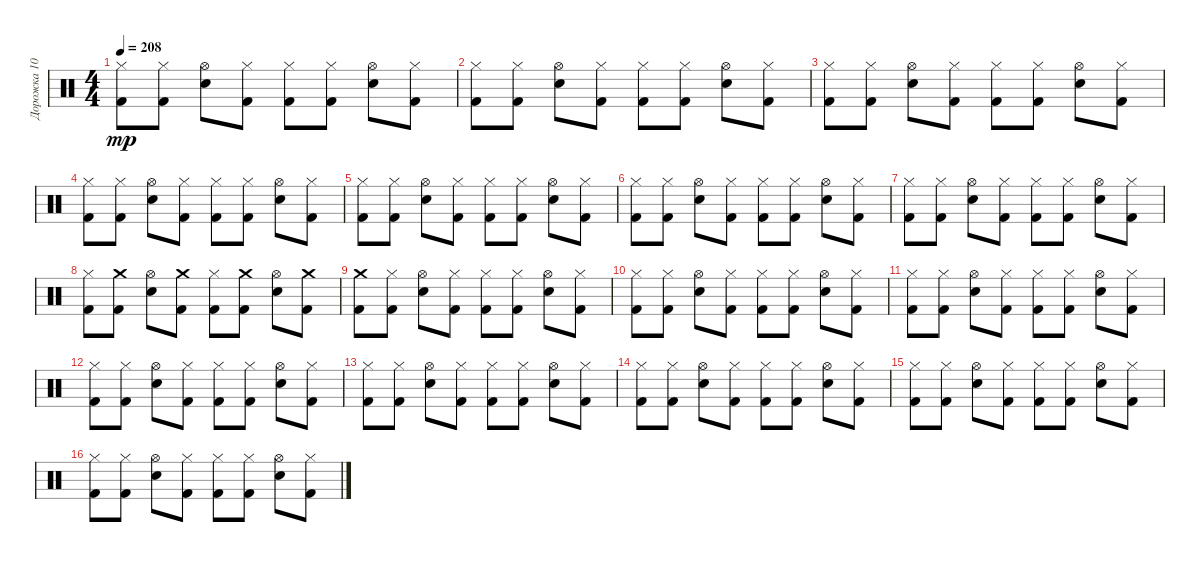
\track ("Дорожка 10" "Дорожка 10") {instrument percussion}
\staff {score}
\articulation defaults
\ts (4 4)
\tempo 208
\clef neutral
\ks c
("Kick (hit) 2" "Hi-Hat (closed)").8{dy mp} ("Kick (hit) 2" "Hi-Hat (closed)").8 ("Snare (hit) 2" "Hi-Hat (open)").8 ("Kick (hit) 2" "Hi-Hat (closed)").8 ("Kick (hit) 2" "Hi-Hat (closed)").8 ("Kick (hit) 2" "Hi-Hat (closed)").8 ("Snare (hit) 2" "Hi-Hat (open)").8 ("Kick (hit) 2" "Hi-Hat (closed)").8 |
("Kick (hit) 2" "Hi-Hat (closed)").8 ("Kick (hit) 2" "Hi-Hat (closed)").8 ("Snare (hit) 2" "Hi-Hat (open)").8 ("Kick (hit) 2" "Hi-Hat (closed)").8 ("Kick (hit) 2" "Hi-Hat (closed)").8 ("Kick (hit) 2" "Hi-Hat (closed)").8 ("Snare (hit) 2" "Hi-Hat (open)").8 ("Kick (hit) 2" "Hi-Hat (closed)").8 |
("Kick (hit) 2" "Hi-Hat (closed)").8 ("Kick (hit) 2" "Hi-Hat (closed)").8 ("Snare (hit) 2" "Hi-Hat (open)").8 ("Kick (hit) 2" "Hi-Hat (closed)").8 ("Kick (hit) 2" "Hi-Hat (closed)").8 ("Kick (hit) 2" "Hi-Hat (closed)").8 ("Snare (hit) 2" "Hi-Hat (open)").8 ("Kick (hit) 2" "Hi-Hat (closed)").8 |
("Kick (hit) 2" "Hi-Hat (closed)").8 ("Kick (hit) 2" "Hi-Hat (closed)").8 ("Snare (hit) 2" "Hi-Hat (open)").8 ("Kick (hit) 2" "Hi-Hat (closed)").8 ("Kick (hit) 2" "Hi-Hat (closed)").8 ("Kick (hit) 2" "Hi-Hat (closed)").8 ("Snare (hit) 2" "Hi-Hat (open)").8 ("Kick (hit) 2" "Hi-Hat (closed)").8 |
("Kick (hit) 2" "Hi-Hat (closed)").8 ("Kick (hit) 2" "Hi-Hat (closed)").8 ("Snare (hit) 2" "Hi-Hat (open)").8 ("Kick (hit) 2" "Hi-Hat (closed)").8 ("Kick (hit) 2" "Hi-Hat (closed)").8 ("Kick (hit) 2" "Hi-Hat (closed)").8 ("Snare (hit) 2" "Hi-Hat (open)").8 ("Kick (hit) 2" "Hi-Hat (closed)").8 |
("Kick (hit) 2" "Hi-Hat (closed)").8 ("Kick (hit) 2" "Hi-Hat (closed)").8 ("Snare (hit) 2" "Hi-Hat (open)").8 ("Kick (hit) 2" "Hi-Hat (closed)").8 ("Kick (hit) 2" "Hi-Hat (closed)").8 ("Kick (hit) 2" "Hi-Hat (closed)").8 ("Snare (hit) 2" "Hi-Hat (open)").8 ("Kick (hit) 2" "Hi-Hat (closed)").8 |
("Kick (hit) 2" "Hi-Hat (closed)").8 ("Kick (hit) 2" "Hi-Hat (closed)").8 ("Snare (hit) 2" "Hi-Hat (open)").8 ("Kick (hit) 2" "Hi-Hat (closed)").8 ("Kick (hit) 2" "Hi-Hat (closed)").8 ("Kick (hit) 2" "Hi-Hat (closed)").8 ("Snare (hit) 2" "Hi-Hat (open)").8 ("Kick (hit) 2" "Hi-Hat (closed)").8 |
("Kick (hit) 2" "Hi-Hat (closed)").8 ("Kick (hit) 2" "Crash medium (hit)").8 ("Snare (hit) 2" "Hi-Hat (open)").8 ("Kick (hit) 2" "Crash medium (hit)").8 ("Kick (hit) 2" "Hi-Hat (closed)").8 ("Kick (hit) 2" "Crash medium (hit)").8 ("Snare (hit) 2" "Hi-Hat (open)").8 ("Kick (hit) 2" "Crash medium (hit)").8 |
("Kick (hit) 2" "Crash medium (hit)").8 ("Kick (hit) 2" "Hi-Hat (closed)").8 ("Snare (hit) 2" "Hi-Hat (open)").8 ("Kick (hit) 2" "Hi-Hat (closed)").8 ("Kick (hit) 2" "Hi-Hat (closed)").8 ("Kick (hit) 2" "Hi-Hat (closed)").8 ("Snare (hit) 2" "Hi-Hat (open)").8 ("Kick (hit) 2" "Hi-Hat (closed)").8 |
("Kick (hit) 2" "Hi-Hat (closed)").8 ("Kick (hit) 2" "Hi-Hat (closed)").8 ("Snare (hit) 2" "Hi-Hat (open)").8 ("Kick (hit) 2" "Hi-Hat (closed)").8 ("Kick (hit) 2" "Hi-Hat (closed)").8 ("Kick (hit) 2" "Hi-Hat (closed)").8 ("Snare (hit) 2" "Hi-Hat (open)").8 ("Kick (hit) 2" "Hi-Hat (closed)").8 |
("Kick (hit) 2" "Hi-Hat (closed)").8 ("Kick (hit) 2" "Hi-Hat (closed)").8 ("Snare (hit) 2" "Hi-Hat (open)").8 ("Kick (hit) 2" "Hi-Hat (closed)").8 ("Kick (hit) 2" "Hi-Hat (closed)").8 ("Kick (hit) 2" "Hi-Hat (closed)").8 ("Snare (hit) 2" "Hi-Hat (open)").8 ("Kick (hit) 2" "Hi-Hat (closed)").8 |
("Kick (hit) 2" "Hi-Hat (closed)").8 ("Kick (hit) 2" "Hi-Hat (closed)").8 ("Snare (hit) 2" "Hi-Hat (open)").8 ("Kick (hit) 2" "Hi-Hat (closed)").8 ("Kick (hit) 2" "Hi-Hat (closed)").8 ("Kick (hit) 2" "Hi-Hat (closed)").8 ("Snare (hit) 2" "Hi-Hat (open)").8 ("Kick (hit) 2" "Hi-Hat (closed)").8 |
("Kick (hit) 2" "Hi-Hat (closed)").8 ("Kick (hit) 2" "Hi-Hat (closed)").8 ("Snare (hit) 2" "Hi-Hat (open)").8 ("Kick (hit) 2" "Hi-Hat (closed)").8 ("Kick (hit) 2" "Hi-Hat (closed)").8 ("Kick (hit) 2" "Hi-Hat (closed)").8 ("Snare (hit) 2" "Hi-Hat (open)").8 ("Kick (hit) 2" "Hi-Hat (closed)").8 |
("Kick (hit) 2" "Hi-Hat (closed)").8 ("Kick (hit) 2" "Hi-Hat (closed)").8 ("Snare (hit) 2" "Hi-Hat (open)").8 ("Kick (hit) 2" "Hi-Hat (closed)").8 ("Kick (hit) 2" "Hi-Hat (closed)").8 ("Kick (hit) 2" "Hi-Hat (closed)").8 ("Snare (hit) 2" "Hi-Hat (open)").8 ("Kick (hit) 2" "Hi-Hat (closed)").8 |
("Kick (hit) 2" "Hi-Hat (closed)").8 ("Kick (hit) 2" "Hi-Hat (closed)").8 ("Snare (hit) 2" "Hi-Hat (open)").8 ("Kick (hit) 2" "Hi-Hat (closed)").8 ("Kick (hit) 2" "Hi-Hat (closed)").8 ("Kick (hit) 2" "Hi-Hat (closed)").8 ("Snare (hit) 2" "Hi-Hat (open)").8 ("Kick (hit) 2" "Hi-Hat (closed)").8 |
("Kick (hit) 2" "Hi-Hat (closed)").8 ("Kick (hit) 2" "Hi-Hat (closed)").8 ("Snare (hit) 2" "Hi-Hat (open)").8 ("Kick (hit) 2" "Hi-Hat (closed)").8 ("Kick (hit) 2" "Hi-Hat (closed)").8 ("Kick (hit) 2" "Hi-Hat (closed)").8 ("Snare (hit) 2" "Hi-Hat (open)").8 ("Kick (hit) 2" "Hi-Hat (closed)").8
